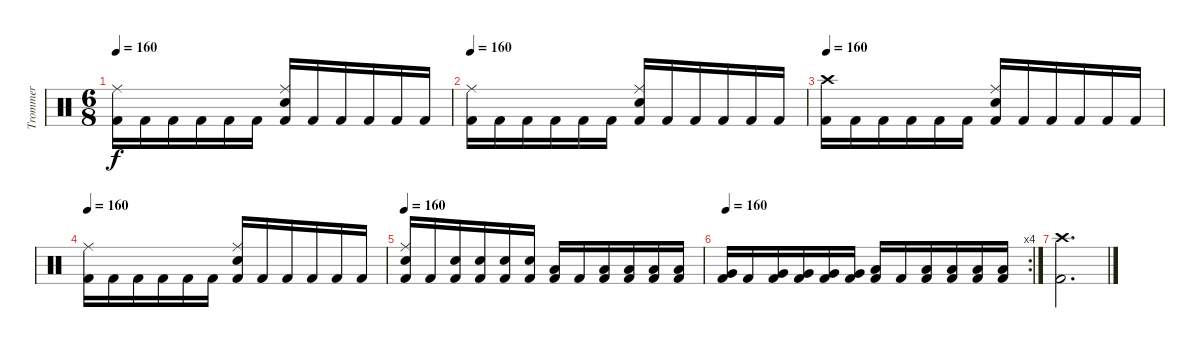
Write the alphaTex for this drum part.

\track ("Trommer" "Trommer") {instrument percussion}
\staff {score}
\articulation defaults
\ts (6 8)
\tempo 160
\clef neutral
\ks c
("Kick (hit) 2" "Ride (middle)").16{dy f} "Kick (hit) 2".16 "Kick (hit) 2".16 "Kick (hit) 2".16 "Kick (hit) 2".16 "Kick (hit) 2".16 ("Kick (hit) 2" "Snare (hit) 2" "Ride (middle)").16 "Kick (hit) 2".16 "Kick (hit) 2".16 "Kick (hit) 2".16 "Kick (hit) 2".16 "Kick (hit) 2".16 |
\tempo 160
("Kick (hit) 2" "Ride (middle)").16 "Kick (hit) 2".16 "Kick (hit) 2".16 "Kick (hit) 2".16 "Kick (hit) 2".16 "Kick (hit) 2".16 ("Kick (hit) 2" "Snare (hit) 2" "Ride (middle)").16 "Kick (hit) 2".16 "Kick (hit) 2".16 "Kick (hit) 2".16 "Kick (hit) 2".16 "Kick (hit) 2".16 |
\tempo 160
("Kick (hit) 2" "Crash high (hit)").16 "Kick (hit) 2".16 "Kick (hit) 2".16 "Kick (hit) 2".16 "Kick (hit) 2".16 "Kick (hit) 2".16 ("Kick (hit) 2" "Snare (hit) 2" "Ride (middle)").16 "Kick (hit) 2".16 "Kick (hit) 2".16 "Kick (hit) 2".16 "Kick (hit) 2".16 "Kick (hit) 2".16 |
\tempo 160
("Kick (hit) 2" "Ride (middle)").16 "Kick (hit) 2".16 "Kick (hit) 2".16 "Kick (hit) 2".16 "Kick (hit) 2".16 "Kick (hit) 2".16 ("Kick (hit) 2" "Snare (hit) 2" "Ride (middle)").16 "Kick (hit) 2".16 "Kick (hit) 2".16 "Kick (hit) 2".16 "Kick (hit) 2".16 "Kick (hit) 2".16 |
\tempo 160
("Kick (hit) 2" "Snare (hit) 2" "Ride (middle)").16 "Kick (hit) 2".16 ("Kick (hit) 2" "Snare (hit) 2").16 ("Kick (hit) 2" "Snare (hit) 2").16 ("Kick (hit) 2" "Snare (hit) 2").16 ("Kick (hit) 2" "Snare (hit) 2").16 ("Kick (hit) 2" "Low Tom (hit)").16 "Kick (hit) 2".16 ("Kick (hit) 2" "Low Tom (hit)").16 ("Kick (hit) 2" "Low Tom (hit)").16 ("Kick (hit) 2" "Low Tom (hit)").16 ("Kick (hit) 2" "Low Tom (hit)").16 |
\rc 4
\tempo 160
("Kick (hit) 2" "Very Low Tom (hit)").16 "Kick (hit) 2".16 ("Kick (hit) 2" "Very Low Tom (hit)").16 ("Kick (hit) 2" "Very Low Tom (hit)").16 ("Kick (hit) 2" "Very Low Tom (hit)").16 ("Kick (hit) 2" "Very Low Tom (hit)").16 ("Kick (hit) 2" "Low Floor Tom (hit)").16 "Kick (hit) 2".16 ("Kick (hit) 2" "Low Floor Tom (hit)").16 ("Kick (hit) 2" "Low Floor Tom (hit)").16 ("Kick (hit) 2" "Low Floor Tom (hit)").16 ("Kick (hit) 2" "Low Floor Tom (hit)").16 |
("Kick (hit) 2" "Crash high (hit)").2{d}
